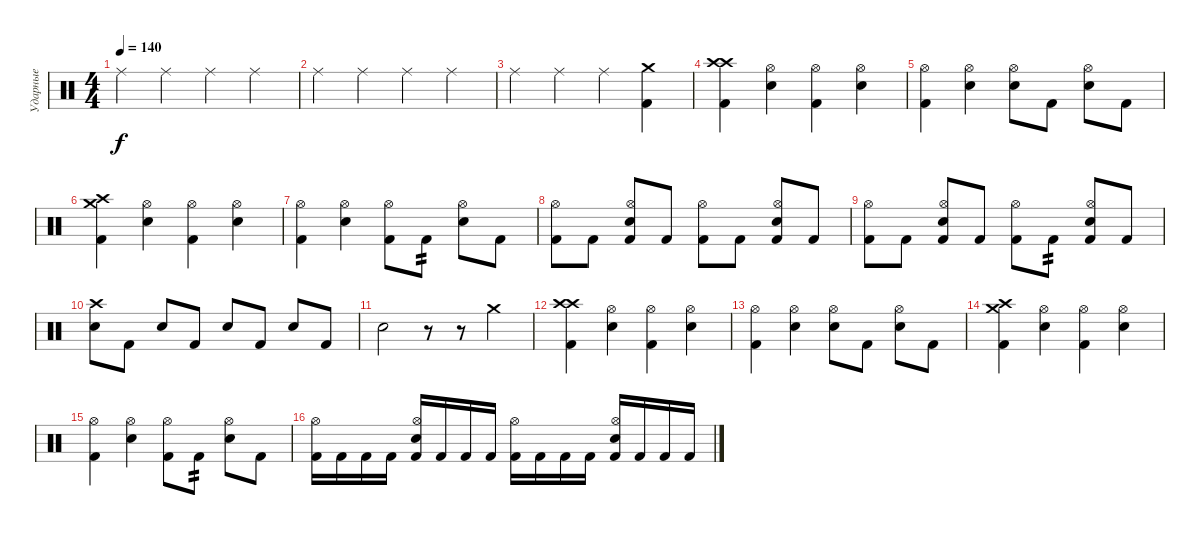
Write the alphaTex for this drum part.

\track ("Ударные" "Ударные") {instrument percussion}
\staff {score}
\articulation defaults
\ts (4 4)
\tempo 140
\clef neutral
\ks c "Ride (middle)".4{dy f} "Ride (middle)".4 "Ride (middle)".4 "Ride (middle)".4
|
"Ride (middle)".4 "Ride (middle)".4 "Ride (middle)".4 "Ride (middle)".4 |
"Ride (middle)".4 "Ride (middle)".4 "Ride (middle)".4 ("Crash medium (hit)" "Kick (hit) 2").4 |
("Crash high (hit)" "Crash high (hit)" "Kick (hit) 2").4 ("Hi-Hat (open)" "Electric Snare (hit)").4 ("Hi-Hat (open)" "Kick (hit) 2").4 ("Hi-Hat (open)" "Electric Snare (hit)").4 |
("Hi-Hat (open)" "Kick (hit) 2").4 ("Hi-Hat (open)" "Electric Snare (hit)").4 ("Hi-Hat (open)" "Electric Snare (hit)").8 "Kick (hit) 2".8 ("Hi-Hat (open)" "Electric Snare (hit)").8 "Kick (hit) 2".8 |
("Crash medium (hit)" "Crash high (hit)" "Kick (hit) 2").4 ("Hi-Hat (open)" "Electric Snare (hit)").4 ("Hi-Hat (open)" "Kick (hit) 2").4 ("Hi-Hat (open)" "Electric Snare (hit)").4 |
("Hi-Hat (open)" "Kick (hit) 2").4 ("Hi-Hat (open)" "Electric Snare (hit)").4 ("Hi-Hat (open)" "Kick (hit) 2").8 "Kick (hit) 2".8{tp 2} ("Hi-Hat (open)" "Electric Snare (hit)").8 "Kick (hit) 2".8 |
("Hi-Hat (open)" "Kick (hit) 2").8 "Kick (hit) 2".8 ("Hi-Hat (open)" "Electric Snare (hit)" "Kick (hit) 2").8 "Kick (hit) 2".8 ("Hi-Hat (open)" "Kick (hit) 2").8 "Kick (hit) 2".8 ("Hi-Hat (open)" "Electric Snare (hit)" "Kick (hit) 2").8 "Kick (hit) 2".8 |
("Hi-Hat (open)" "Kick (hit) 2").8 "Kick (hit) 2".8 ("Hi-Hat (open)" "Electric Snare (hit)" "Kick (hit) 2").8 "Kick (hit) 2".8 ("Hi-Hat (open)" "Kick (hit) 2").8 "Kick (hit) 2".8{tp 2} ("Hi-Hat (open)" "Electric Snare (hit)" "Kick (hit) 2").8 "Kick (hit) 2".8 |
("Crash high (hit)" "Electric Snare (hit)").8 "Kick (hit) 2".8 "Electric Snare (hit)".8 "Kick (hit) 2".8 "Electric Snare (hit)".8 "Kick (hit) 2".8 "Electric Snare (hit)".8 "Kick (hit) 2".8 |
"Electric Snare (hit)".2 r.8 r.8 "Crash medium (hit)".4 |
("Crash high (hit)" "Crash high (hit)" "Kick (hit) 2").4 ("Hi-Hat (open)" "Electric Snare (hit)").4 ("Hi-Hat (open)" "Kick (hit) 2").4 ("Hi-Hat (open)" "Electric Snare (hit)").4 |
("Hi-Hat (open)" "Kick (hit) 2").4 ("Hi-Hat (open)" "Electric Snare (hit)").4 ("Hi-Hat (open)" "Electric Snare (hit)").8 "Kick (hit) 2".8 ("Hi-Hat (open)" "Electric Snare (hit)").8 "Kick (hit) 2".8 |
("Crash medium (hit)" "Crash high (hit)" "Kick (hit) 2").4 ("Hi-Hat (open)" "Electric Snare (hit)").4 ("Hi-Hat (open)" "Kick (hit) 2").4 ("Hi-Hat (open)" "Electric Snare (hit)").4 |
("Hi-Hat (open)" "Kick (hit) 2").4 ("Hi-Hat (open)" "Electric Snare (hit)").4 ("Hi-Hat (open)" "Kick (hit) 2").8 "Kick (hit) 2".8{tp 2} ("Hi-Hat (open)" "Electric Snare (hit)").8 "Kick (hit) 2".8 |
("Hi-Hat (open)" "Kick (hit) 2").16 "Kick (hit) 2".16 "Kick (hit) 2".16 "Kick (hit) 2".16 ("Hi-Hat (open)" "Electric Snare (hit)" "Kick (hit) 2").16 "Kick (hit) 2".16 "Kick (hit) 2".16 "Kick (hit) 2".16 ("Hi-Hat (open)" "Kick (hit) 2").16 "Kick (hit) 2".16 "Kick (hit) 2".16 "Kick (hit) 2".16 ("Hi-Hat (open)" "Electric Snare (hit)" "Kick (hit) 2").16 "Kick (hit) 2".16 "Kick (hit) 2".16 "Kick (hit) 2".16
